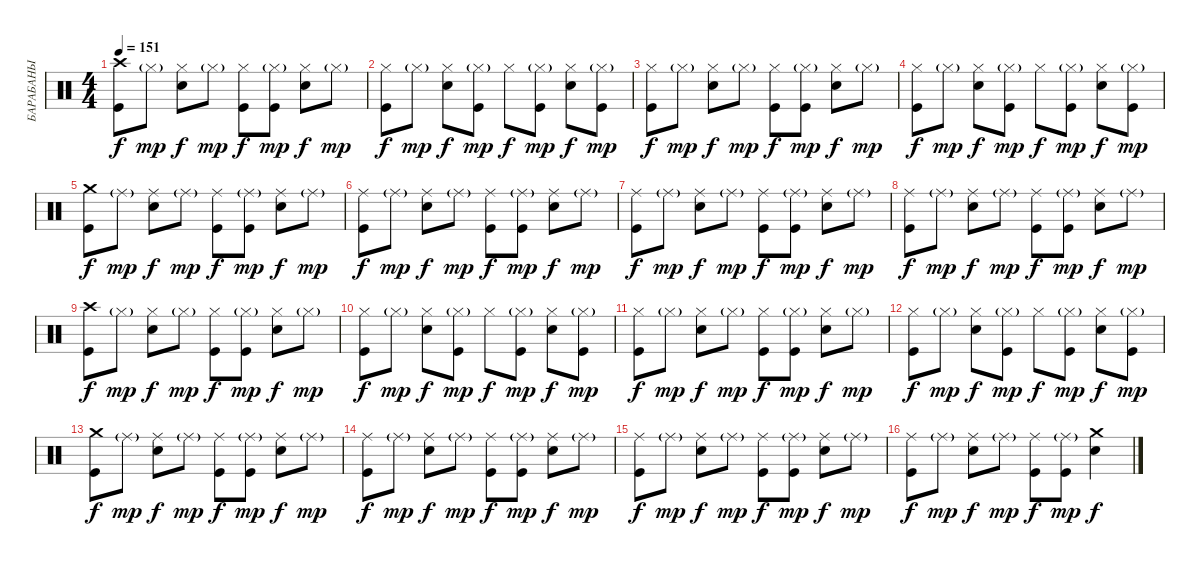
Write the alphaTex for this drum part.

\track ("БАРАБАНЫ" "БАРАБАНЫ") {instrument percussion}
\staff {score}
\articulation defaults
\ts (4 4)
\tempo 151
\clef neutral
\ks c
("Crash high (hit)" "Kick (hit)").8{dy f} "Hi-Hat (closed)"{g}.8{dy mp} ("Hi-Hat (closed)" "Electric Snare (hit)").8{dy f} "Hi-Hat (closed)"{g}.8{dy mp} ("Hi-Hat (closed)" "Kick (hit)").8{dy f} ("Hi-Hat (closed)"{g} "Kick (hit)").8{dy mp} ("Hi-Hat (closed)" "Electric Snare (hit)").8{dy f} "Hi-Hat (closed)"{g}.8{dy mp} |
("Hi-Hat (closed)" "Kick (hit)").8{dy f} "Hi-Hat (closed)"{g}.8{dy mp} ("Hi-Hat (closed)" "Electric Snare (hit)").8{dy f} ("Hi-Hat (closed)"{g} "Kick (hit)").8{dy mp} "Hi-Hat (closed)".8{dy f} ("Hi-Hat (closed)"{g} "Kick (hit)").8{dy mp} ("Hi-Hat (closed)" "Electric Snare (hit)").8{dy f} ("Hi-Hat (closed)"{g} "Kick (hit)").8{dy mp} |
("Hi-Hat (closed)" "Kick (hit)").8{dy f} "Hi-Hat (closed)"{g}.8{dy mp} ("Hi-Hat (closed)" "Electric Snare (hit)").8{dy f} "Hi-Hat (closed)"{g}.8{dy mp} ("Hi-Hat (closed)" "Kick (hit)").8{dy f} ("Hi-Hat (closed)"{g} "Kick (hit)").8{dy mp} ("Hi-Hat (closed)" "Electric Snare (hit)").8{dy f} "Hi-Hat (closed)"{g}.8{dy mp} |
("Hi-Hat (closed)" "Kick (hit)").8{dy f} "Hi-Hat (closed)"{g}.8{dy mp} ("Hi-Hat (closed)" "Electric Snare (hit)").8{dy f} ("Hi-Hat (closed)"{g} "Kick (hit)").8{dy mp} "Hi-Hat (closed)".8{dy f} ("Hi-Hat (closed)"{g} "Kick (hit)").8{dy mp} ("Hi-Hat (closed)" "Electric Snare (hit)").8{dy f} ("Hi-Hat (closed)"{g} "Kick (hit)").8{dy mp} |
("Crash medium (hit)" "Kick (hit)").8{dy f} "Ride (middle)"{g}.8{dy mp} ("Ride (middle)" "Electric Snare (hit)").8{dy f} "Ride (middle)"{g}.8{dy mp} ("Ride (middle)" "Kick (hit)").8{dy f} ("Ride (middle)"{g} "Kick (hit)").8{dy mp} ("Ride (middle)" "Electric Snare (hit)").8{dy f} "Ride (middle)"{g}.8{dy mp} |
("Ride (middle)" "Kick (hit)").8{dy f} "Ride (middle)"{g}.8{dy mp} ("Ride (middle)" "Electric Snare (hit)").8{dy f} "Ride (middle)"{g}.8{dy mp} ("Ride (middle)" "Kick (hit)").8{dy f} ("Ride (middle)"{g} "Kick (hit)").8{dy mp} ("Ride (middle)" "Electric Snare (hit)").8{dy f} "Ride (middle)"{g}.8{dy mp} |
("Ride (middle)" "Kick (hit)").8{dy f} "Ride (middle)"{g}.8{dy mp} ("Ride (middle)" "Electric Snare (hit)").8{dy f} "Ride (middle)"{g}.8{dy mp} ("Ride (middle)" "Kick (hit)").8{dy f} ("Ride (middle)"{g} "Kick (hit)").8{dy mp} ("Ride (middle)" "Electric Snare (hit)").8{dy f} "Ride (middle)"{g}.8{dy mp} |
("Ride (middle)" "Kick (hit)").8{dy f} "Ride (middle)"{g}.8{dy mp} ("Ride (middle)" "Electric Snare (hit)").8{dy f} "Ride (middle)"{g}.8{dy mp} ("Ride (middle)" "Kick (hit)").8{dy f} ("Ride (middle)"{g} "Kick (hit)").8{dy mp} ("Ride (middle)" "Electric Snare (hit)").8{dy f} "Ride (middle)"{g}.8{dy mp} |
("Crash high (hit)" "Kick (hit)").8{dy f} "Hi-Hat (closed)"{g}.8{dy mp} ("Hi-Hat (closed)" "Electric Snare (hit)").8{dy f} "Hi-Hat (closed)"{g}.8{dy mp} ("Hi-Hat (closed)" "Kick (hit)").8{dy f} ("Hi-Hat (closed)"{g} "Kick (hit)").8{dy mp} ("Hi-Hat (closed)" "Electric Snare (hit)").8{dy f} "Hi-Hat (closed)"{g}.8{dy mp} |
("Hi-Hat (closed)" "Kick (hit)").8{dy f} "Hi-Hat (closed)"{g}.8{dy mp} ("Hi-Hat (closed)" "Electric Snare (hit)").8{dy f} ("Hi-Hat (closed)"{g} "Kick (hit)").8{dy mp} "Hi-Hat (closed)".8{dy f} ("Hi-Hat (closed)"{g} "Kick (hit)").8{dy mp} ("Hi-Hat (closed)" "Electric Snare (hit)").8{dy f} ("Hi-Hat (closed)"{g} "Kick (hit)").8{dy mp} |
("Hi-Hat (closed)" "Kick (hit)").8{dy f} "Hi-Hat (closed)"{g}.8{dy mp} ("Hi-Hat (closed)" "Electric Snare (hit)").8{dy f} "Hi-Hat (closed)"{g}.8{dy mp} ("Hi-Hat (closed)" "Kick (hit)").8{dy f} ("Hi-Hat (closed)"{g} "Kick (hit)").8{dy mp} ("Hi-Hat (closed)" "Electric Snare (hit)").8{dy f} "Hi-Hat (closed)"{g}.8{dy mp} |
("Hi-Hat (closed)" "Kick (hit)").8{dy f} "Hi-Hat (closed)"{g}.8{dy mp} ("Hi-Hat (closed)" "Electric Snare (hit)").8{dy f} ("Hi-Hat (closed)"{g} "Kick (hit)").8{dy mp} "Hi-Hat (closed)".8{dy f} ("Hi-Hat (closed)"{g} "Kick (hit)").8{dy mp} ("Hi-Hat (closed)" "Electric Snare (hit)").8{dy f} ("Hi-Hat (closed)"{g} "Kick (hit)").8{dy mp} |
("Crash medium (hit)" "Kick (hit)").8{dy f} "Ride (middle)"{g}.8{dy mp} ("Ride (middle)" "Electric Snare (hit)").8{dy f} "Ride (middle)"{g}.8{dy mp} ("Ride (middle)" "Kick (hit)").8{dy f} ("Ride (middle)"{g} "Kick (hit)").8{dy mp} ("Ride (middle)" "Electric Snare (hit)").8{dy f} "Ride (middle)"{g}.8{dy mp} |
("Ride (middle)" "Kick (hit)").8{dy f} "Ride (middle)"{g}.8{dy mp} ("Ride (middle)" "Electric Snare (hit)").8{dy f} "Ride (middle)"{g}.8{dy mp} ("Ride (middle)" "Kick (hit)").8{dy f} ("Ride (middle)"{g} "Kick (hit)").8{dy mp} ("Ride (middle)" "Electric Snare (hit)").8{dy f} "Ride (middle)"{g}.8{dy mp} |
("Ride (middle)" "Kick (hit)").8{dy f} "Ride (middle)"{g}.8{dy mp} ("Ride (middle)" "Electric Snare (hit)").8{dy f} "Ride (middle)"{g}.8{dy mp} ("Ride (middle)" "Kick (hit)").8{dy f} ("Ride (middle)"{g} "Kick (hit)").8{dy mp} ("Ride (middle)" "Electric Snare (hit)").8{dy f} "Ride (middle)"{g}.8{dy mp} |
("Ride (middle)" "Kick (hit)").8{dy f} "Ride (middle)"{g}.8{dy mp} ("Ride (middle)" "Electric Snare (hit)").8{dy f} "Ride (middle)"{g}.8{dy mp} ("Ride (middle)" "Kick (hit)").8{dy f} ("Ride (middle)"{g} "Kick (hit)").8{dy mp} ("Crash medium (hit)" "Electric Snare (hit)").4{dy f}
